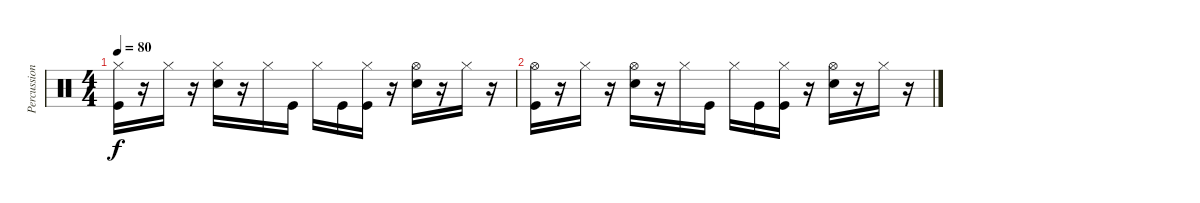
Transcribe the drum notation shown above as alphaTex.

\track ("Percussions" "Percussion") {instrument percussion}
\staff {score}
\articulation defaults
\ts (4 4)
\tempo 80
\clef neutral
\ks c
("Hi-Hat (closed)" "Kick (hit)").16{dy f} r.16 "Hi-Hat (closed)".16 r.16 ("Hi-Hat (closed)" "Electric Snare (hit)").16 r.16 "Hi-Hat (closed)".16 "Kick (hit)".16 "Hi-Hat (closed)".16 "Kick (hit)".16 ("Hi-Hat (closed)" "Kick (hit)").16 r.16 ("Hi-Hat (open)" "Electric Snare (hit)").16 r.16 "Hi-Hat (closed)".16 r.16 |
("Hi-Hat (open)" "Kick (hit)").16 r.16 "Hi-Hat (closed)".16 r.16 ("Hi-Hat (open)" "Electric Snare (hit)").16 r.16 "Hi-Hat (closed)".16 "Kick (hit)".16 "Hi-Hat (closed)".16 "Kick (hit)".16 ("Hi-Hat (closed)" "Kick (hit)").16 r.16 ("Hi-Hat (open)" "Electric Snare (hit)").16 r.16 "Hi-Hat (closed)".16 r.16
